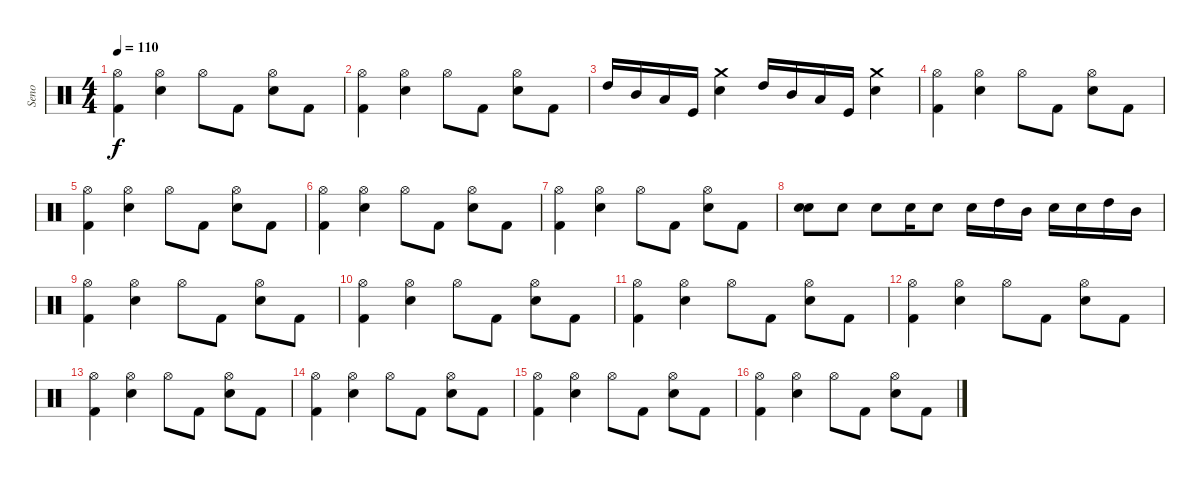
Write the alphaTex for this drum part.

\track ("Seno" "Seno") {instrument percussion}
\staff {score}
\articulation defaults
\ts (4 4)
\tempo 110
\clef neutral
\ks c
("Kick (hit) 2" "Hi-Hat (open)").4{dy f} ("Snare (hit) 2" "Hi-Hat (open)").4 "Hi-Hat (open)".8 "Kick (hit) 2".8 ("Hi-Hat (open)" "Snare (hit) 2").8 "Kick (hit) 2".8 |
("Kick (hit) 2" "Hi-Hat (open)").4 ("Snare (hit) 2" "Hi-Hat (open)").4 "Hi-Hat (open)".8 "Kick (hit) 2".8 ("Hi-Hat (open)" "Snare (hit) 2").8 "Kick (hit) 2".8 |
"High Tom (hit)".16 "Mid Tom (hit)".16 "Low Tom (hit)".16 "Kick (hit)".16 ("Crash medium (hit)" "Snare (hit) 2").4 "High Tom (hit)".16 "Mid Tom (hit)".16 "Low Tom (hit)".16 "Kick (hit)".16 ("Crash medium (hit)" "Snare (hit) 2").4 |
("Kick (hit) 2" "Hi-Hat (open)").4 ("Snare (hit) 2" "Hi-Hat (open)").4 "Hi-Hat (open)".8 "Kick (hit) 2".8 ("Hi-Hat (open)" "Snare (hit) 2").8 "Kick (hit) 2".8 |
("Kick (hit) 2" "Hi-Hat (open)").4 ("Snare (hit) 2" "Hi-Hat (open)").4 "Hi-Hat (open)".8 "Kick (hit) 2".8 ("Hi-Hat (open)" "Snare (hit) 2").8 "Kick (hit) 2".8 |
("Kick (hit) 2" "Hi-Hat (open)").4 ("Snare (hit) 2" "Hi-Hat (open)").4 "Hi-Hat (open)".8 "Kick (hit) 2".8 ("Hi-Hat (open)" "Snare (hit) 2").8 "Kick (hit) 2".8 |
("Kick (hit) 2" "Hi-Hat (open)").4 ("Snare (hit) 2" "Hi-Hat (open)").4 "Hi-Hat (open)".8 "Kick (hit) 2".8 ("Hi-Hat (open)" "Snare (hit) 2").8 "Kick (hit) 2".8 |
("Snare (hit) 2" "Snare (hit) 2").8{bd 480} "Snare (hit) 2".8 "Snare (hit) 2".8 "Snare (hit) 2".16 "Snare (hit) 2".8 "Snare (hit) 2".16 "High Tom (hit)".16 "Mid Tom (hit)".16 "Snare (hit) 2".16 "Snare (hit) 2".16 "High Tom (hit)".16 "Mid Tom (hit)".16 |
("Kick (hit) 2" "Hi-Hat (open)").4 ("Snare (hit) 2" "Hi-Hat (open)").4 "Hi-Hat (open)".8 "Kick (hit) 2".8 ("Hi-Hat (open)" "Snare (hit) 2").8 "Kick (hit) 2".8 |
("Kick (hit) 2" "Hi-Hat (open)").4 ("Snare (hit) 2" "Hi-Hat (open)").4 "Hi-Hat (open)".8 "Kick (hit) 2".8 ("Hi-Hat (open)" "Snare (hit) 2").8 "Kick (hit) 2".8 |
("Kick (hit) 2" "Hi-Hat (open)").4 ("Snare (hit) 2" "Hi-Hat (open)").4 "Hi-Hat (open)".8 "Kick (hit) 2".8 ("Hi-Hat (open)" "Snare (hit) 2").8 "Kick (hit) 2".8 |
("Kick (hit) 2" "Hi-Hat (open)").4 ("Snare (hit) 2" "Hi-Hat (open)").4 "Hi-Hat (open)".8 "Kick (hit) 2".8 ("Hi-Hat (open)" "Snare (hit) 2").8 "Kick (hit) 2".8 |
("Kick (hit) 2" "Hi-Hat (open)").4 ("Snare (hit) 2" "Hi-Hat (open)").4 "Hi-Hat (open)".8 "Kick (hit) 2".8 ("Hi-Hat (open)" "Snare (hit) 2").8 "Kick (hit) 2".8 |
("Kick (hit) 2" "Hi-Hat (open)").4 ("Snare (hit) 2" "Hi-Hat (open)").4 "Hi-Hat (open)".8 "Kick (hit) 2".8 ("Hi-Hat (open)" "Snare (hit) 2").8 "Kick (hit) 2".8 |
("Kick (hit) 2" "Hi-Hat (open)").4 ("Snare (hit) 2" "Hi-Hat (open)").4 "Hi-Hat (open)".8 "Kick (hit) 2".8 ("Hi-Hat (open)" "Snare (hit) 2").8 "Kick (hit) 2".8 |
("Kick (hit) 2" "Hi-Hat (open)").4 ("Snare (hit) 2" "Hi-Hat (open)").4 "Hi-Hat (open)".8 "Kick (hit) 2".8 ("Hi-Hat (open)" "Snare (hit) 2").8 "Kick (hit) 2".8
